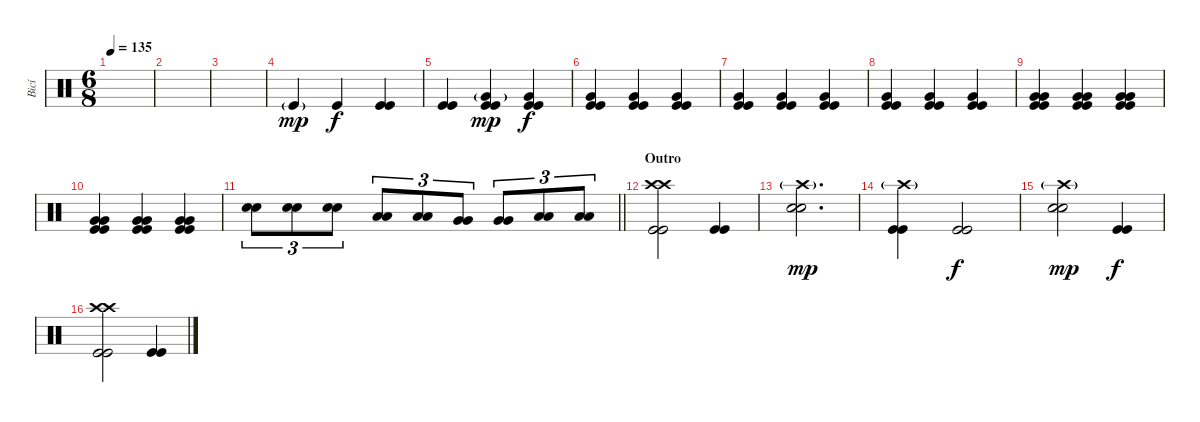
\track ("Bicí" "Bicí") {instrument percussion}
\staff {score}
\articulation defaults
\ts (6 8)
\tempo 135
\clef neutral
\ks c
|
|
|
"Kick (hit)"{g}.4{dy mp} "Kick (hit)".4{dy f} ("Kick (hit)" "Kick (hit)").4 |
("Kick (hit)" "Kick (hit)").4 ("Very Low Tom (hit)"{g} "Kick (hit)" "Kick (hit)").4{dy mp} ("Very Low Tom (hit)" "Kick (hit)" "Kick (hit)").4{dy f} |
("Very Low Tom (hit)" "Kick (hit)" "Kick (hit)").4 ("Very Low Tom (hit)" "Kick (hit)" "Kick (hit)").4 ("Very Low Tom (hit)" "Kick (hit)" "Kick (hit)").4 |
("Very Low Tom (hit)" "Kick (hit)" "Kick (hit)").4 ("Very Low Tom (hit)" "Kick (hit)" "Kick (hit)").4 ("Very Low Tom (hit)" "Kick (hit)" "Kick (hit)").4 |
("Very Low Tom (hit)" "Kick (hit)" "Kick (hit)").4 ("Very Low Tom (hit)" "Kick (hit)" "Kick (hit)").4 ("Very Low Tom (hit)" "Kick (hit)" "Kick (hit)").4 |
("Very Low Tom (hit)" "Very Low Tom (hit)" "Kick (hit)" "Kick (hit)").4 ("Very Low Tom (hit)" "Very Low Tom (hit)" "Kick (hit)" "Kick (hit)").4 ("Very Low Tom (hit)" "Very Low Tom (hit)" "Kick (hit)" "Kick (hit)").4 |
("Very Low Tom (hit)" "Very Low Tom (hit)" "Kick (hit)" "Kick (hit)").4 ("Very Low Tom (hit)" "Very Low Tom (hit)" "Kick (hit)" "Kick (hit)").4 ("Very Low Tom (hit)" "Very Low Tom (hit)" "Kick (hit)" "Kick (hit)").4 |
\barLineRight lightlight
("Electric Snare (hit)" "Electric Snare (hit)").8{tu (3 2)} ("Electric Snare (hit)" "Electric Snare (hit)").8{tu (3 2)} ("Electric Snare (hit)" "Electric Snare (hit)").8{tu (3 2)} ("Low Tom (hit)" "Low Tom (hit)").8{tu (3 2)} ("Low Tom (hit)" "Low Tom (hit)").8{tu (3 2)} ("Very Low Tom (hit)" "Very Low Tom (hit)").8{tu (3 2)} ("Very Low Tom (hit)" "Very Low Tom (hit)").8{tu (3 2)} ("Low Floor Tom (hit)" "Low Floor Tom (hit)").8{tu (3 2)} ("Low Floor Tom (hit)" "Low Floor Tom (hit)").8{tu (3 2)} |
\section ("" "Outro")
("Crash high (hit)" "Crash high (hit)" "Kick (hit)" "Kick (hit)").2 ("Kick (hit)" "Kick (hit)").4 |
("Crash high (hit)"{g} "Electric Snare (hit)" "Electric Snare (hit)").2{d dy mp} |
("Crash high (hit)"{g} "Kick (hit)" "Kick (hit)").4 ("Kick (hit)" "Kick (hit)").2{dy f} |
("Crash high (hit)"{g} "Electric Snare (hit)" "Electric Snare (hit)").2{dy mp} ("Kick (hit)" "Kick (hit)").4{dy f} |
("Crash high (hit)" "Crash high (hit)" "Kick (hit)" "Kick (hit)").2 ("Kick (hit)" "Kick (hit)").4
